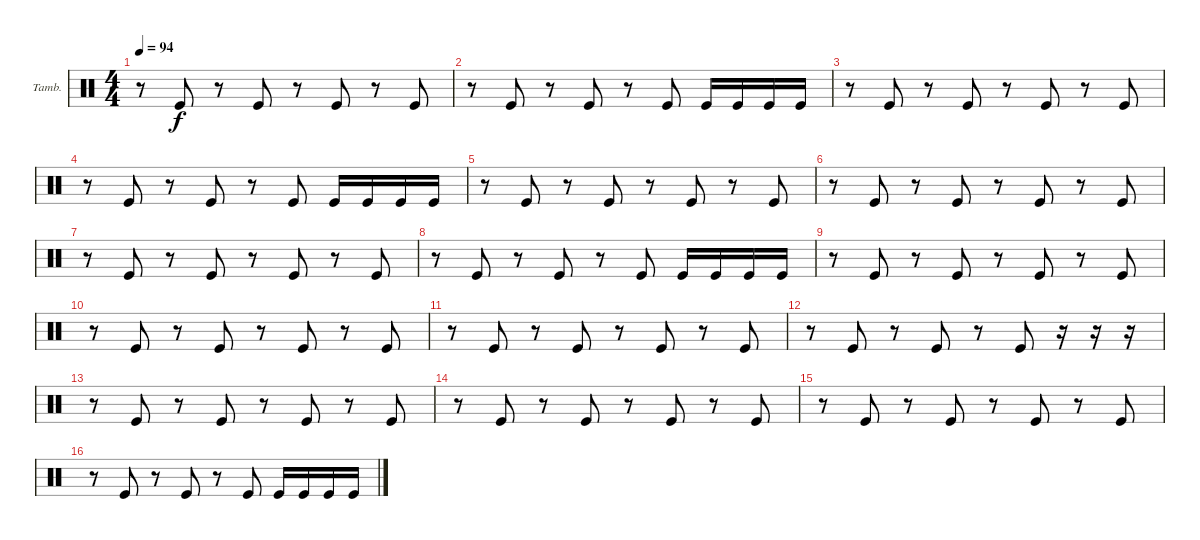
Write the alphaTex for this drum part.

\defaultSystemsLayout 4
\bracketExtendMode groupsimilarinstruments
\firstSystemTrackNameOrientation horizontal
\otherSystemsTrackNameOrientation horizontal
\track ("Tambourine" "Tamb.") {instrument percussion}
\staff {score}
\articulation defaults
\ts (4 4)
\tempo 94
\clef neutral
\scale
0.333333
\ks c
r.8{dy f} "Kick (hit)".8 r.8 "Kick (hit)".8 r.8 "Kick (hit)".8 r.8 "Kick (hit)".8 |
\scale
0.333333 r.8 "Kick (hit)".8 r.8 "Kick (hit)".8 r.8 "Kick (hit)".8 "Kick (hit)".16 "Kick (hit)".16 "Kick (hit)".16 "Kick (hit)".16 |
\scale
0.333333 r.8 "Kick (hit)".8 r.8 "Kick (hit)".8 r.8 "Kick (hit)".8 r.8 "Kick (hit)".8 |
\scale
0.333333 r.8 "Kick (hit)".8 r.8 "Kick (hit)".8 r.8 "Kick (hit)".8 "Kick (hit)".16 "Kick (hit)".16 "Kick (hit)".16 "Kick (hit)".16 |
\scale
0.333333 r.8 "Kick (hit)".8 r.8 "Kick (hit)".8 r.8 "Kick (hit)".8 r.8 "Kick (hit)".8 |
\scale
0.333333 r.8 "Kick (hit)".8 r.8 "Kick (hit)".8 r.8 "Kick (hit)".8 r.8 "Kick (hit)".8 |
\scale
0.333333 r.8 "Kick (hit)".8 r.8 "Kick (hit)".8 r.8 "Kick (hit)".8 r.8 "Kick (hit)".8 |
\scale
0.333333 r.8 "Kick (hit)".8 r.8 "Kick (hit)".8 r.8 "Kick (hit)".8 "Kick (hit)".16 "Kick (hit)".16 "Kick (hit)".16 "Kick (hit)".16 |
\scale
0.333333 r.8 "Kick (hit)".8 r.8 "Kick (hit)".8 r.8 "Kick (hit)".8 r.8 "Kick (hit)".8 |
\scale
0.333333 r.8 "Kick (hit)".8 r.8 "Kick (hit)".8 r.8 "Kick (hit)".8 r.8 "Kick (hit)".8 |
\scale
0.333333 r.8 "Kick (hit)".8 r.8 "Kick (hit)".8 r.8 "Kick (hit)".8 r.8 "Kick (hit)".8 |
\scale
0.333333 r.8 "Kick (hit)".8 r.8 "Kick (hit)".8 r.8 "Kick (hit)".8 r.16 r.16 r.16 |
\scale
0.333333 r.8 "Kick (hit)".8 r.8 "Kick (hit)".8 r.8 "Kick (hit)".8 r.8 "Kick (hit)".8 |
\scale
0.333333 r.8 "Kick (hit)".8 r.8 "Kick (hit)".8 r.8 "Kick (hit)".8 r.8 "Kick (hit)".8 |
\scale
0.333333 r.8 "Kick (hit)".8 r.8 "Kick (hit)".8 r.8 "Kick (hit)".8 r.8 "Kick (hit)".8 |
\scale
0.333333 r.8 "Kick (hit)".8 r.8 "Kick (hit)".8 r.8 "Kick (hit)".8 "Kick (hit)".16 "Kick (hit)".16 "Kick (hit)".16 "Kick (hit)".16
